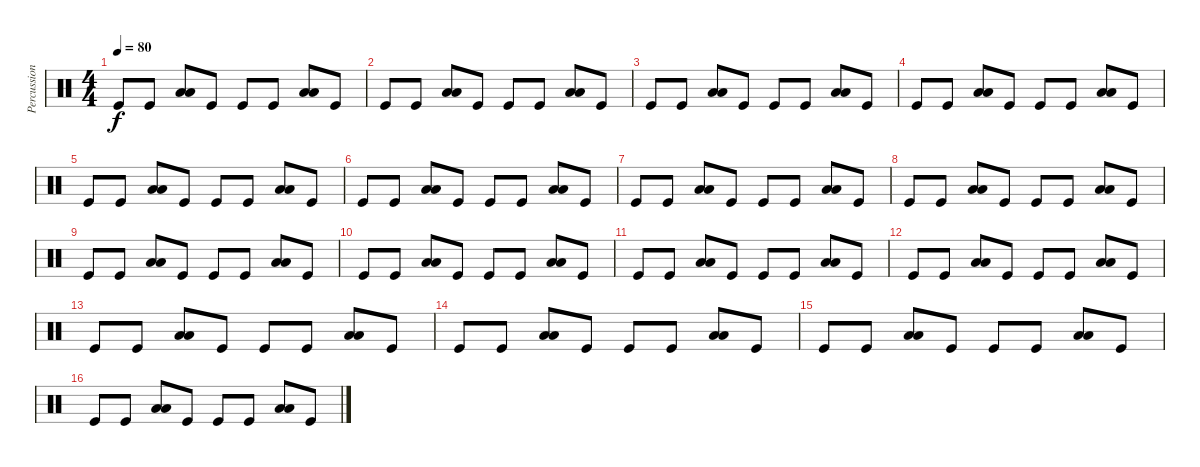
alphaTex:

\track ("Percussions" "Percussion") {instrument percussion}
\staff {score}
\articulation defaults
\ts (4 4)
\tempo 80
\clef neutral
\ks c "Kick (hit)".8{dy f} "Kick (hit)".8
("Low Tom (hit)" "Low Floor Tom (hit)").8 "Kick (hit)".8 "Kick (hit)".8 "Kick (hit)".8 ("Low Tom (hit)" "Low Floor Tom (hit)").8 "Kick (hit)".8 |
"Kick (hit)".8 "Kick (hit)".8 ("Low Tom (hit)" "Low Floor Tom (hit)").8 "Kick (hit)".8 "Kick (hit)".8 "Kick (hit)".8 ("Low Tom (hit)" "Low Floor Tom (hit)").8 "Kick (hit)".8 |
"Kick (hit)".8 "Kick (hit)".8 ("Low Tom (hit)" "Low Floor Tom (hit)").8 "Kick (hit)".8 "Kick (hit)".8 "Kick (hit)".8 ("Low Tom (hit)" "Low Floor Tom (hit)").8 "Kick (hit)".8 |
"Kick (hit)".8 "Kick (hit)".8 ("Low Tom (hit)" "Low Floor Tom (hit)").8 "Kick (hit)".8 "Kick (hit)".8 "Kick (hit)".8 ("Low Tom (hit)" "Low Floor Tom (hit)").8 "Kick (hit)".8 |
"Kick (hit)".8 "Kick (hit)".8 ("Low Tom (hit)" "Low Floor Tom (hit)").8 "Kick (hit)".8 "Kick (hit)".8 "Kick (hit)".8 ("Low Tom (hit)" "Low Floor Tom (hit)").8 "Kick (hit)".8 |
"Kick (hit)".8 "Kick (hit)".8 ("Low Tom (hit)" "Low Floor Tom (hit)").8 "Kick (hit)".8 "Kick (hit)".8 "Kick (hit)".8 ("Low Tom (hit)" "Low Floor Tom (hit)").8 "Kick (hit)".8 |
"Kick (hit)".8 "Kick (hit)".8 ("Low Tom (hit)" "Low Floor Tom (hit)").8 "Kick (hit)".8 "Kick (hit)".8 "Kick (hit)".8 ("Low Tom (hit)" "Low Floor Tom (hit)").8 "Kick (hit)".8 |
"Kick (hit)".8 "Kick (hit)".8 ("Low Tom (hit)" "Low Floor Tom (hit)").8 "Kick (hit)".8 "Kick (hit)".8 "Kick (hit)".8 ("Low Tom (hit)" "Low Floor Tom (hit)").8 "Kick (hit)".8 |
"Kick (hit)".8 "Kick (hit)".8 ("Low Tom (hit)" "Low Floor Tom (hit)").8 "Kick (hit)".8 "Kick (hit)".8 "Kick (hit)".8 ("Low Tom (hit)" "Low Floor Tom (hit)").8 "Kick (hit)".8 |
"Kick (hit)".8 "Kick (hit)".8 ("Low Tom (hit)" "Low Floor Tom (hit)").8 "Kick (hit)".8 "Kick (hit)".8 "Kick (hit)".8 ("Low Tom (hit)" "Low Floor Tom (hit)").8 "Kick (hit)".8 |
"Kick (hit)".8 "Kick (hit)".8 ("Low Tom (hit)" "Low Floor Tom (hit)").8 "Kick (hit)".8 "Kick (hit)".8 "Kick (hit)".8 ("Low Tom (hit)" "Low Floor Tom (hit)").8 "Kick (hit)".8 |
"Kick (hit)".8 "Kick (hit)".8 ("Low Tom (hit)" "Low Floor Tom (hit)").8 "Kick (hit)".8 "Kick (hit)".8 "Kick (hit)".8 ("Low Tom (hit)" "Low Floor Tom (hit)").8 "Kick (hit)".8 |
"Kick (hit)".8 "Kick (hit)".8 ("Low Tom (hit)" "Low Floor Tom (hit)").8 "Kick (hit)".8 "Kick (hit)".8 "Kick (hit)".8 ("Low Tom (hit)" "Low Floor Tom (hit)").8 "Kick (hit)".8 |
"Kick (hit)".8 "Kick (hit)".8 ("Low Tom (hit)" "Low Floor Tom (hit)").8 "Kick (hit)".8 "Kick (hit)".8 "Kick (hit)".8 ("Low Tom (hit)" "Low Floor Tom (hit)").8 "Kick (hit)".8 |
"Kick (hit)".8 "Kick (hit)".8 ("Low Tom (hit)" "Low Floor Tom (hit)").8 "Kick (hit)".8 "Kick (hit)".8 "Kick (hit)".8 ("Low Tom (hit)" "Low Floor Tom (hit)").8 "Kick (hit)".8 |
"Kick (hit)".8 "Kick (hit)".8 ("Low Tom (hit)" "Low Floor Tom (hit)").8 "Kick (hit)".8 "Kick (hit)".8 "Kick (hit)".8 ("Low Tom (hit)" "Low Floor Tom (hit)").8 "Kick (hit)".8
